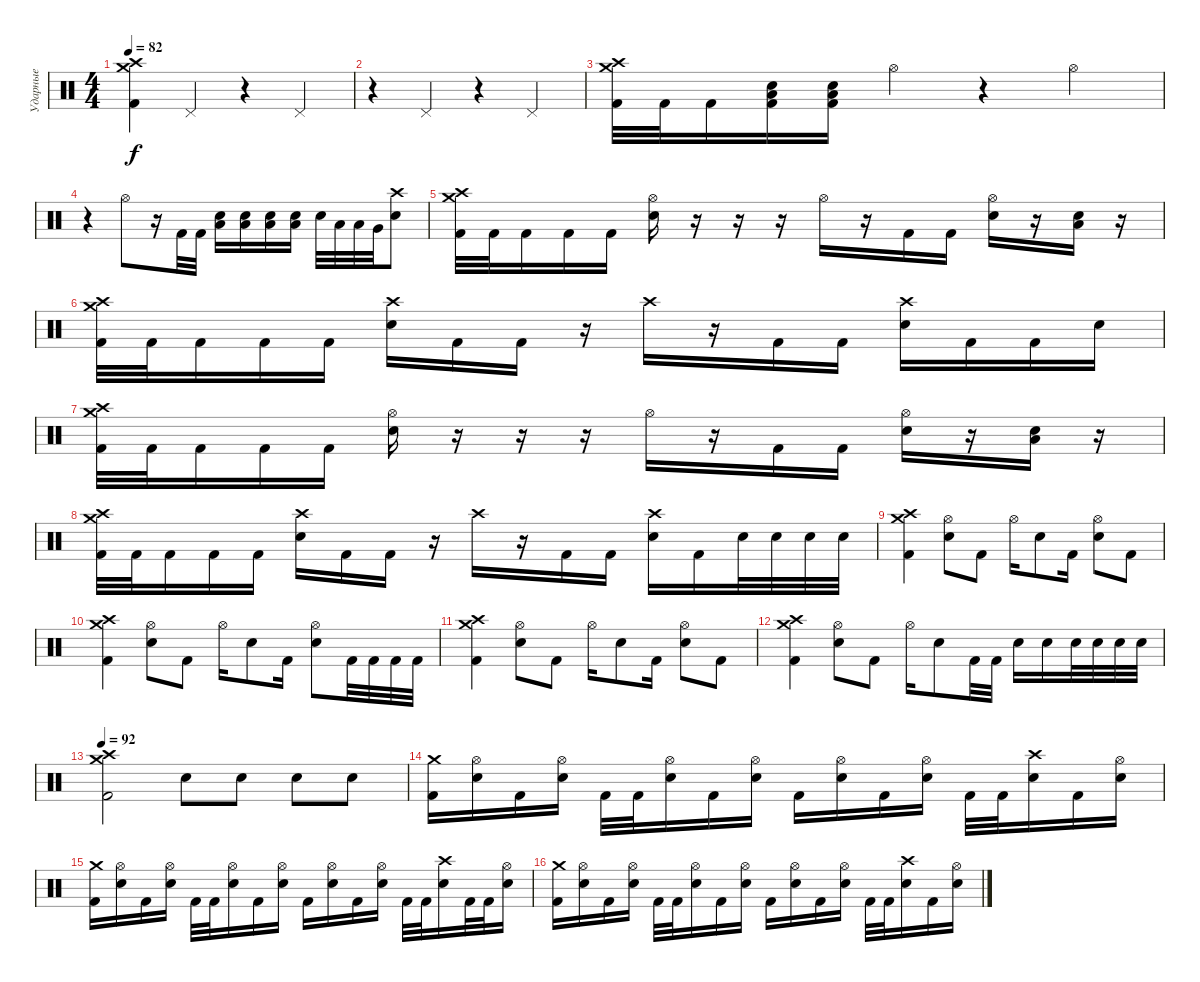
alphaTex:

\track ("Ударные" "Ударные") {instrument percussion}
\staff {score}
\articulation defaults
\ts (4 4)
\tempo 82
\clef neutral
\ks c
("Crash medium (hit)" "Crash high (hit)" "Kick (hit) 2").4{dy f} "Pedal Hi-Hat (hit)".4 r.4 "Pedal Hi-Hat (hit)".4 |
r.4 "Pedal Hi-Hat (hit)".4 r.4 "Pedal Hi-Hat (hit)".4 |
("Crash medium (hit)" "Crash high (hit)" "Kick (hit) 2").32 "Kick (hit) 2".32 "Kick (hit) 2".16 ("Low Floor Tom (hit)" "Electric Snare (hit)" "Kick (hit) 2").16 ("Low Floor Tom (hit)" "Electric Snare (hit)" "Kick (hit) 2").16 "Hi-Hat (open)".4 r.4 "Hi-Hat (open)".4 |
r.4 "Hi-Hat (open)".8 r.16 "Kick (hit) 2".32 "Kick (hit) 2".32 ("Electric Snare (hit)" "Low Floor Tom (hit)").16 ("Electric Snare (hit)" "Low Floor Tom (hit)").16 ("Low Floor Tom (hit)" "Electric Snare (hit)").16 ("Low Floor Tom (hit)" "Electric Snare (hit)").16 "Electric Snare (hit)".32 "Low Tom (hit)".32 "Low Tom (hit)".32 "Very Low Tom (hit)".32 ("Crash high (hit)" "Electric Snare (hit)").8 |
("Crash medium (hit)" "Crash high (hit)" "Kick (hit) 2").32 "Kick (hit) 2".32 "Kick (hit) 2".16 "Kick (hit) 2".16 "Kick (hit) 2".16 ("Hi-Hat (open)" "Electric Snare (hit)").16 r.16 r.16 r.16 "Hi-Hat (open)".16 r.16 "Kick (hit) 2".16 "Kick (hit) 2".16 ("Hi-Hat (open)" "Electric Snare (hit)").16 r.16 ("Low Floor Tom (hit)" "Electric Snare (hit)").16{bd 60} r.16 |
("Crash medium (hit)" "Crash high (hit)" "Kick (hit) 2").32 "Kick (hit) 2".32 "Kick (hit) 2".16 "Kick (hit) 2".16 "Kick (hit) 2".16 ("Crash high (hit)" "Electric Snare (hit)").16 "Kick (hit) 2".16 "Kick (hit) 2".16 r.16 "Crash high (hit)".16 r.16 "Kick (hit) 2".16 "Kick (hit) 2".16 ("Crash high (hit)" "Electric Snare (hit)").16 "Kick (hit) 2".16 "Kick (hit) 2".16 "Electric Snare (hit)".16 |
("Crash medium (hit)" "Crash high (hit)" "Kick (hit) 2").32 "Kick (hit) 2".32 "Kick (hit) 2".16 "Kick (hit) 2".16 "Kick (hit) 2".16 ("Hi-Hat (open)" "Electric Snare (hit)").16 r.16 r.16 r.16 "Hi-Hat (open)".16 r.16 "Kick (hit) 2".16 "Kick (hit) 2".16 ("Hi-Hat (open)" "Electric Snare (hit)").16 r.16 ("Low Floor Tom (hit)" "Electric Snare (hit)").16{bd 60} r.16 |
("Crash medium (hit)" "Crash high (hit)" "Kick (hit) 2").32 "Kick (hit) 2".32 "Kick (hit) 2".16 "Kick (hit) 2".16 "Kick (hit) 2".16 ("Crash high (hit)" "Electric Snare (hit)").16 "Kick (hit) 2".16 "Kick (hit) 2".16 r.16 "Crash high (hit)".16 r.16 "Kick (hit) 2".16 "Kick (hit) 2".16 ("Crash high (hit)" "Electric Snare (hit)").16 "Kick (hit) 2".16 "Electric Snare (hit)".32 "Electric Snare (hit)".32 "Electric Snare (hit)".32 "Electric Snare (hit)".32 |
("Crash medium (hit)" "Crash high (hit)" "Kick (hit) 2").4 ("Hi-Hat (open)" "Electric Snare (hit)").8 "Kick (hit) 2".8 "Hi-Hat (open)".16 "Electric Snare (hit)".8 "Kick (hit) 2".16 ("Hi-Hat (open)" "Electric Snare (hit)").8 "Kick (hit) 2".8 |
("Crash medium (hit)" "Crash high (hit)" "Kick (hit) 2").4 ("Hi-Hat (open)" "Electric Snare (hit)").8 "Kick (hit) 2".8 "Hi-Hat (open)".16 "Electric Snare (hit)".8 "Kick (hit) 2".16 ("Hi-Hat (open)" "Electric Snare (hit)").8 "Kick (hit) 2".32 "Kick (hit) 2".32 "Kick (hit) 2".32 "Kick (hit) 2".32 |
("Crash medium (hit)" "Crash high (hit)" "Kick (hit) 2").4 ("Hi-Hat (open)" "Electric Snare (hit)").8 "Kick (hit) 2".8 "Hi-Hat (open)".16 "Electric Snare (hit)".8 "Kick (hit) 2".16 ("Hi-Hat (open)" "Electric Snare (hit)").8 "Kick (hit) 2".8 |
("Crash medium (hit)" "Crash high (hit)" "Kick (hit) 2").4 ("Hi-Hat (open)" "Electric Snare (hit)").8 "Kick (hit) 2".8 "Hi-Hat (open)".16 "Electric Snare (hit)".8 "Kick (hit) 2".32 "Kick (hit) 2".32 "Electric Snare (hit)".16 "Electric Snare (hit)".16 "Electric Snare (hit)".32 "Electric Snare (hit)".32 "Electric Snare (hit)".32 "Electric Snare (hit)".32 |
\tempo 92
("Crash medium (hit)" "Crash high (hit)" "Kick (hit) 2").2 "Electric Snare (hit)".8 "Electric Snare (hit)".8 "Electric Snare (hit)".8 "Electric Snare (hit)".8 |
("Crash medium (hit)" "Kick (hit) 2").16 ("Hi-Hat (open)" "Electric Snare (hit)").16 "Kick (hit) 2".16 ("Hi-Hat (open)" "Electric Snare (hit)").16 "Kick (hit) 2".32 "Kick (hit) 2".32 ("Hi-Hat (open)" "Electric Snare (hit)").16 "Kick (hit) 2".16 ("Hi-Hat (open)" "Electric Snare (hit)").16 "Kick (hit) 2".16 ("Hi-Hat (open)" "Electric Snare (hit)").16 "Kick (hit) 2".16 ("Hi-Hat (open)" "Electric Snare (hit)").16 "Kick (hit) 2".32 "Kick (hit) 2".32 ("Crash high (hit)" "Electric Snare (hit)").16 "Kick (hit) 2".16 ("Hi-Hat (open)" "Electric Snare (hit)").16 |
("Crash medium (hit)" "Kick (hit) 2").16 ("Hi-Hat (open)" "Electric Snare (hit)").16 "Kick (hit) 2".16 ("Hi-Hat (open)" "Electric Snare (hit)").16 "Kick (hit) 2".32 "Kick (hit) 2".32 ("Hi-Hat (open)" "Electric Snare (hit)").16 "Kick (hit) 2".16 ("Hi-Hat (open)" "Electric Snare (hit)").16 "Kick (hit) 2".16 ("Hi-Hat (open)" "Electric Snare (hit)").16 "Kick (hit) 2".16 ("Hi-Hat (open)" "Electric Snare (hit)").16 "Kick (hit) 2".32 "Kick (hit) 2".32 ("Crash high (hit)" "Electric Snare (hit)").16 "Kick (hit) 2".32 "Kick (hit) 2".32 ("Hi-Hat (open)" "Electric Snare (hit)").16 |
("Crash medium (hit)" "Kick (hit) 2").16 ("Hi-Hat (open)" "Electric Snare (hit)").16 "Kick (hit) 2".16 ("Hi-Hat (open)" "Electric Snare (hit)").16 "Kick (hit) 2".32 "Kick (hit) 2".32 ("Hi-Hat (open)" "Electric Snare (hit)").16 "Kick (hit) 2".16 ("Hi-Hat (open)" "Electric Snare (hit)").16 "Kick (hit) 2".16 ("Hi-Hat (open)" "Electric Snare (hit)").16 "Kick (hit) 2".16 ("Hi-Hat (open)" "Electric Snare (hit)").16 "Kick (hit) 2".32 "Kick (hit) 2".32 ("Crash high (hit)" "Electric Snare (hit)").16 "Kick (hit) 2".16 ("Hi-Hat (open)" "Electric Snare (hit)").16
